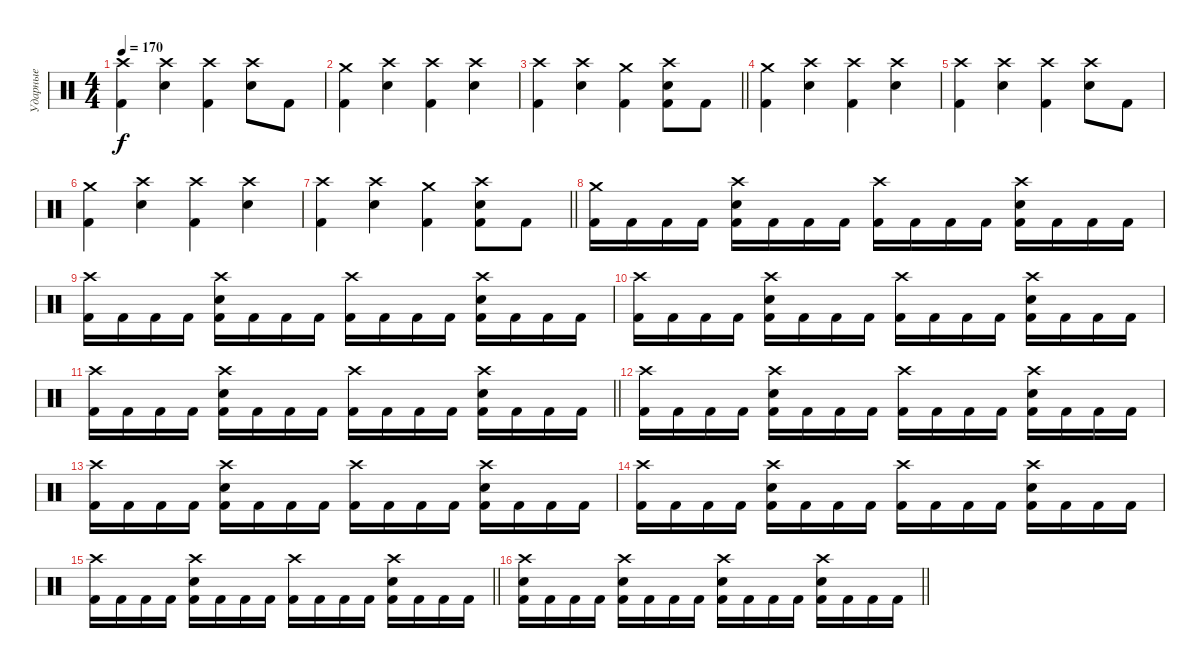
\track ("Ударные" "Ударные") {instrument percussion}
\staff {score}
\articulation defaults
\ts (4 4)
\tempo 170
\clef neutral
\ks c
("Crash high (hit)" "Kick (hit) 2").4{dy f} ("Crash high (hit)" "Snare (hit) 2").4 ("Crash high (hit)" "Kick (hit) 2").4 ("Crash high (hit)" "Snare (hit) 2").8 "Kick (hit) 2".8 |
("Crash medium (hit)" "Kick (hit) 2").4 ("Crash high (hit)" "Snare (hit) 2").4 ("Crash high (hit)" "Kick (hit) 2").4 ("Crash high (hit)" "Snare (hit) 2").4 |
\barLineRight lightlight
("Crash high (hit)" "Kick (hit) 2").4 ("Crash high (hit)" "Snare (hit) 2").4 ("Crash medium (hit)" "Kick (hit) 2").4 ("Crash high (hit)" "Snare (hit) 2" "Kick (hit) 2").8 "Kick (hit) 2".8 |
("Crash medium (hit)" "Kick (hit) 2").4 ("Crash high (hit)" "Snare (hit) 2").4 ("Crash high (hit)" "Kick (hit) 2").4 ("Crash high (hit)" "Snare (hit) 2").4 |
("Crash high (hit)" "Kick (hit) 2").4 ("Crash high (hit)" "Snare (hit) 2").4 ("Crash high (hit)" "Kick (hit) 2").4 ("Crash high (hit)" "Snare (hit) 2").8 "Kick (hit) 2".8 |
("Crash medium (hit)" "Kick (hit) 2").4 ("Crash high (hit)" "Snare (hit) 2").4 ("Crash high (hit)" "Kick (hit) 2").4 ("Crash high (hit)" "Snare (hit) 2").4 |
\barLineRight lightlight
("Crash high (hit)" "Kick (hit) 2").4 ("Crash high (hit)" "Snare (hit) 2").4 ("Crash medium (hit)" "Kick (hit) 2").4 ("Crash high (hit)" "Snare (hit) 2" "Kick (hit) 2").8 "Kick (hit) 2".8 |
("Crash medium (hit)" "Kick (hit) 2").16 "Kick (hit) 2".16 "Kick (hit) 2".16 "Kick (hit) 2".16 ("Crash high (hit)" "Snare (hit) 2" "Kick (hit) 2").16 "Kick (hit) 2".16 "Kick (hit) 2".16 "Kick (hit) 2".16 ("Crash high (hit)" "Kick (hit) 2").16 "Kick (hit) 2".16 "Kick (hit) 2".16 "Kick (hit) 2".16 ("Crash high (hit)" "Snare (hit) 2" "Kick (hit) 2").16 "Kick (hit) 2".16 "Kick (hit) 2".16 "Kick (hit) 2".16 |
("Crash high (hit)" "Kick (hit) 2").16 "Kick (hit) 2".16 "Kick (hit) 2".16 "Kick (hit) 2".16 ("Crash high (hit)" "Snare (hit) 2" "Kick (hit) 2").16 "Kick (hit) 2".16 "Kick (hit) 2".16 "Kick (hit) 2".16 ("Crash high (hit)" "Kick (hit) 2").16 "Kick (hit) 2".16 "Kick (hit) 2".16 "Kick (hit) 2".16 ("Crash high (hit)" "Snare (hit) 2" "Kick (hit) 2").16 "Kick (hit) 2".16 "Kick (hit) 2".16 "Kick (hit) 2".16 |
("Crash high (hit)" "Kick (hit) 2").16 "Kick (hit) 2".16 "Kick (hit) 2".16 "Kick (hit) 2".16 ("Crash high (hit)" "Snare (hit) 2" "Kick (hit) 2").16 "Kick (hit) 2".16 "Kick (hit) 2".16 "Kick (hit) 2".16 ("Crash high (hit)" "Kick (hit) 2").16 "Kick (hit) 2".16 "Kick (hit) 2".16 "Kick (hit) 2".16 ("Crash high (hit)" "Snare (hit) 2" "Kick (hit) 2").16 "Kick (hit) 2".16 "Kick (hit) 2".16 "Kick (hit) 2".16 |
\barLineRight lightlight
("Crash high (hit)" "Kick (hit) 2").16 "Kick (hit) 2".16 "Kick (hit) 2".16 "Kick (hit) 2".16 ("Crash high (hit)" "Snare (hit) 2" "Kick (hit) 2").16 "Kick (hit) 2".16 "Kick (hit) 2".16 "Kick (hit) 2".16 ("Crash high (hit)" "Kick (hit) 2").16 "Kick (hit) 2".16 "Kick (hit) 2".16 "Kick (hit) 2".16 ("Crash high (hit)" "Snare (hit) 2" "Kick (hit) 2").16 "Kick (hit) 2".16 "Kick (hit) 2".16 "Kick (hit) 2".16 |
("Crash high (hit)" "Kick (hit) 2").16 "Kick (hit) 2".16 "Kick (hit) 2".16 "Kick (hit) 2".16 ("Crash high (hit)" "Snare (hit) 2" "Kick (hit) 2").16 "Kick (hit) 2".16 "Kick (hit) 2".16 "Kick (hit) 2".16 ("Crash high (hit)" "Kick (hit) 2").16 "Kick (hit) 2".16 "Kick (hit) 2".16 "Kick (hit) 2".16 ("Crash high (hit)" "Snare (hit) 2" "Kick (hit) 2").16 "Kick (hit) 2".16 "Kick (hit) 2".16 "Kick (hit) 2".16 |
("Crash high (hit)" "Kick (hit) 2").16 "Kick (hit) 2".16 "Kick (hit) 2".16 "Kick (hit) 2".16 ("Crash high (hit)" "Snare (hit) 2" "Kick (hit) 2").16 "Kick (hit) 2".16 "Kick (hit) 2".16 "Kick (hit) 2".16 ("Crash high (hit)" "Kick (hit) 2").16 "Kick (hit) 2".16 "Kick (hit) 2".16 "Kick (hit) 2".16 ("Crash high (hit)" "Snare (hit) 2" "Kick (hit) 2").16 "Kick (hit) 2".16 "Kick (hit) 2".16 "Kick (hit) 2".16 |
("Crash high (hit)" "Kick (hit) 2").16 "Kick (hit) 2".16 "Kick (hit) 2".16 "Kick (hit) 2".16 ("Crash high (hit)" "Snare (hit) 2" "Kick (hit) 2").16 "Kick (hit) 2".16 "Kick (hit) 2".16 "Kick (hit) 2".16 ("Crash high (hit)" "Kick (hit) 2").16 "Kick (hit) 2".16 "Kick (hit) 2".16 "Kick (hit) 2".16 ("Crash high (hit)" "Snare (hit) 2" "Kick (hit) 2").16 "Kick (hit) 2".16 "Kick (hit) 2".16 "Kick (hit) 2".16 |
\barLineRight lightlight
("Crash high (hit)" "Kick (hit) 2").16 "Kick (hit) 2".16 "Kick (hit) 2".16 "Kick (hit) 2".16 ("Crash high (hit)" "Snare (hit) 2" "Kick (hit) 2").16 "Kick (hit) 2".16 "Kick (hit) 2".16 "Kick (hit) 2".16 ("Crash high (hit)" "Kick (hit) 2").16 "Kick (hit) 2".16 "Kick (hit) 2".16 "Kick (hit) 2".16 ("Crash high (hit)" "Snare (hit) 2" "Kick (hit) 2").16 "Kick (hit) 2".16 "Kick (hit) 2".16 "Kick (hit) 2".16 |
\barLineRight lightlight
("Crash high (hit)" "Snare (hit) 2" "Kick (hit) 2").16 "Kick (hit) 2".16 "Kick (hit) 2".16 "Kick (hit) 2".16 ("Crash high (hit)" "Snare (hit) 2" "Kick (hit) 2").16 "Kick (hit) 2".16 "Kick (hit) 2".16 "Kick (hit) 2".16 ("Crash high (hit)" "Snare (hit) 2" "Kick (hit) 2").16 "Kick (hit) 2".16 "Kick (hit) 2".16 "Kick (hit) 2".16 ("Crash high (hit)" "Snare (hit) 2" "Kick (hit) 2").16 "Kick (hit) 2".16 "Kick (hit) 2".16 "Kick (hit) 2".16
